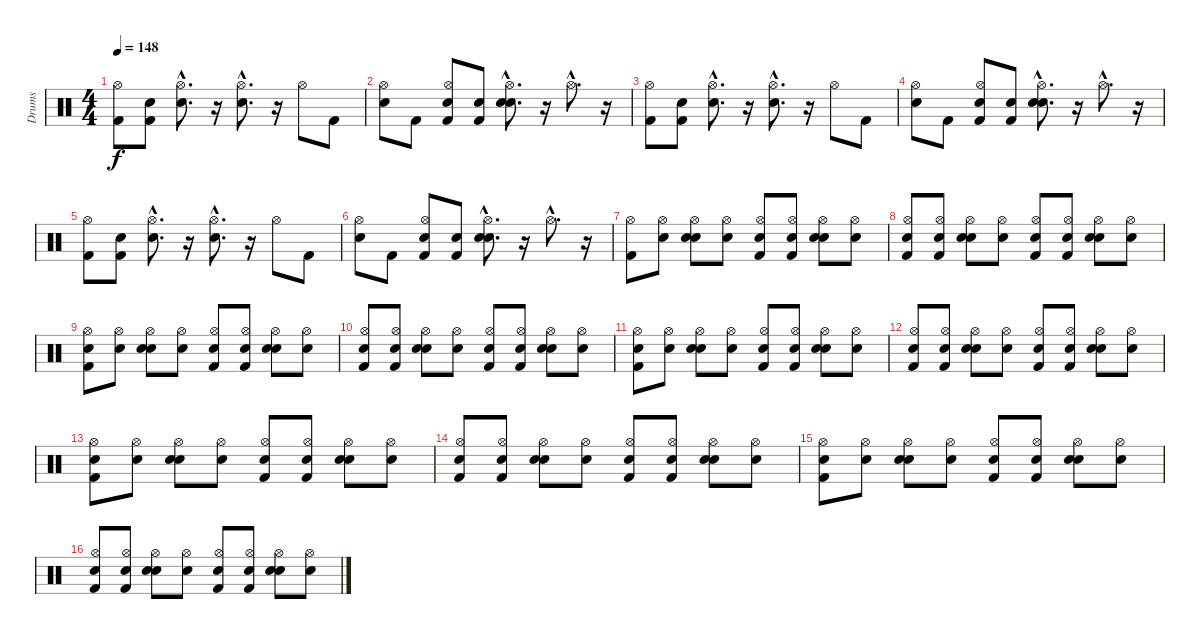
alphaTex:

\track ("Drums" "Drums") {instrument percussion}
\staff {score}
\articulation defaults
\ts (4 4)
\tempo 148
\clef neutral
\ks c
("Kick (hit) 2" "Hi-Hat (open)").8{dy f} ("Snare (hit)" "Kick (hit) 2").8 ("Snare (hit)"{hac} "Hi-Hat (open)"{hac}).8{d} r.16 ("Snare (hit) 2"{hac} "Hi-Hat (open)"{hac}).8{d} r.16 "Hi-Hat (open)".8 "Kick (hit) 2".8 |
("Snare (hit)" "Hi-Hat (open)").8 "Kick (hit) 2".8 ("Snare (hit)" "Kick (hit) 2" "Hi-Hat (open)").8 ("Snare (hit)" "Kick (hit) 2").8 ("Snare (hit)"{hac} "Snare (hit) 2"{hac} "Hi-Hat (open)"{hac}).8{d} r.16 "Hi-Hat (open)"{hac}.8{d} r.16 |
("Kick (hit) 2" "Hi-Hat (open)").8 ("Snare (hit)" "Kick (hit) 2").8 ("Snare (hit)"{hac} "Hi-Hat (open)"{hac}).8{d} r.16 ("Snare (hit) 2"{hac} "Hi-Hat (open)"{hac}).8{d} r.16 "Hi-Hat (open)".8 "Kick (hit) 2".8 |
("Snare (hit)" "Hi-Hat (open)").8 "Kick (hit) 2".8 ("Snare (hit)" "Kick (hit) 2" "Hi-Hat (open)").8 ("Snare (hit)" "Kick (hit) 2").8 ("Snare (hit)"{hac} "Snare (hit) 2"{hac} "Hi-Hat (open)"{hac}).8{d} r.16 "Hi-Hat (open)"{hac}.8{d} r.16 |
("Kick (hit) 2" "Hi-Hat (open)").8 ("Snare (hit)" "Kick (hit) 2").8 ("Snare (hit)"{hac} "Hi-Hat (open)"{hac}).8{d} r.16 ("Snare (hit) 2"{hac} "Hi-Hat (open)"{hac}).8{d} r.16 "Hi-Hat (open)".8 "Kick (hit) 2".8 |
("Snare (hit)" "Hi-Hat (open)").8 "Kick (hit) 2".8 ("Snare (hit)" "Kick (hit) 2" "Hi-Hat (open)").8 ("Snare (hit)" "Kick (hit) 2").8 ("Snare (hit)"{hac} "Snare (hit) 2"{hac} "Hi-Hat (open)"{hac}).8{d} r.16 "Hi-Hat (open)"{hac}.8{d} r.16 |
("Kick (hit) 2" "Hi-Hat (open)").8 ("Snare (hit)" "Hi-Hat (open)").8 ("Snare (hit)" "Snare (hit) 2" "Hi-Hat (open)").8 ("Snare (hit)" "Hi-Hat (open)").8 ("Snare (hit)" "Kick (hit) 2" "Hi-Hat (open)").8 ("Snare (hit)" "Kick (hit) 2" "Hi-Hat (open)").8 ("Snare (hit)" "Snare (hit) 2" "Hi-Hat (open)").8 ("Snare (hit)" "Hi-Hat (open)").8 |
("Snare (hit)" "Kick (hit) 2" "Hi-Hat (open)").8 ("Snare (hit)" "Kick (hit) 2" "Hi-Hat (open)").8 ("Snare (hit)" "Snare (hit) 2" "Hi-Hat (open)").8 ("Snare (hit)" "Hi-Hat (open)").8 ("Snare (hit)" "Kick (hit) 2" "Hi-Hat (open)").8 ("Snare (hit)" "Kick (hit) 2" "Hi-Hat (open)").8 ("Snare (hit)" "Snare (hit) 2" "Hi-Hat (open)").8 ("Snare (hit)" "Hi-Hat (open)").8 |
("Snare (hit)" "Kick (hit) 2" "Hi-Hat (open)").8 ("Snare (hit)" "Hi-Hat (open)").8 ("Snare (hit)" "Snare (hit) 2" "Hi-Hat (open)").8 ("Snare (hit)" "Hi-Hat (open)").8 ("Snare (hit)" "Kick (hit) 2" "Hi-Hat (open)").8 ("Snare (hit)" "Kick (hit) 2" "Hi-Hat (open)").8 ("Snare (hit)" "Snare (hit) 2" "Hi-Hat (open)").8 ("Snare (hit)" "Hi-Hat (open)").8 |
("Snare (hit)" "Kick (hit) 2" "Hi-Hat (open)").8 ("Snare (hit)" "Kick (hit) 2" "Hi-Hat (open)").8 ("Snare (hit)" "Snare (hit) 2" "Hi-Hat (open)").8 ("Snare (hit)" "Hi-Hat (open)").8 ("Snare (hit)" "Kick (hit) 2" "Hi-Hat (open)").8 ("Snare (hit)" "Kick (hit) 2" "Hi-Hat (open)").8 ("Snare (hit)" "Snare (hit) 2" "Hi-Hat (open)").8 ("Snare (hit)" "Hi-Hat (open)").8 |
("Snare (hit)" "Kick (hit) 2" "Hi-Hat (open)").8 ("Snare (hit)" "Hi-Hat (open)").8 ("Snare (hit)" "Snare (hit) 2" "Hi-Hat (open)").8 ("Snare (hit)" "Hi-Hat (open)").8 ("Snare (hit)" "Kick (hit) 2" "Hi-Hat (open)").8 ("Snare (hit)" "Kick (hit) 2" "Hi-Hat (open)").8 ("Snare (hit)" "Snare (hit) 2" "Hi-Hat (open)").8 ("Snare (hit)" "Hi-Hat (open)").8 |
("Snare (hit)" "Kick (hit) 2" "Hi-Hat (open)").8 ("Snare (hit)" "Kick (hit) 2" "Hi-Hat (open)").8 ("Snare (hit)" "Snare (hit) 2" "Hi-Hat (open)").8 ("Snare (hit)" "Hi-Hat (open)").8 ("Snare (hit)" "Kick (hit) 2" "Hi-Hat (open)").8 ("Snare (hit)" "Kick (hit) 2" "Hi-Hat (open)").8 ("Snare (hit)" "Snare (hit) 2" "Hi-Hat (open)").8 ("Snare (hit)" "Hi-Hat (open)").8 |
("Snare (hit)" "Kick (hit) 2" "Hi-Hat (open)").8 ("Snare (hit)" "Hi-Hat (open)").8 ("Snare (hit)" "Snare (hit) 2" "Hi-Hat (open)").8 ("Snare (hit)" "Hi-Hat (open)").8 ("Snare (hit)" "Kick (hit) 2" "Hi-Hat (open)").8 ("Snare (hit)" "Kick (hit) 2" "Hi-Hat (open)").8 ("Snare (hit)" "Snare (hit) 2" "Hi-Hat (open)").8 ("Snare (hit)" "Hi-Hat (open)").8 |
("Snare (hit)" "Kick (hit) 2" "Hi-Hat (open)").8 ("Snare (hit)" "Kick (hit) 2" "Hi-Hat (open)").8 ("Snare (hit)" "Snare (hit) 2" "Hi-Hat (open)").8 ("Snare (hit)" "Hi-Hat (open)").8 ("Snare (hit)" "Kick (hit) 2" "Hi-Hat (open)").8 ("Snare (hit)" "Kick (hit) 2" "Hi-Hat (open)").8 ("Snare (hit)" "Snare (hit) 2" "Hi-Hat (open)").8 ("Snare (hit)" "Hi-Hat (open)").8 |
("Snare (hit)" "Kick (hit) 2" "Hi-Hat (open)").8 ("Snare (hit)" "Hi-Hat (open)").8 ("Snare (hit)" "Snare (hit) 2" "Hi-Hat (open)").8 ("Snare (hit)" "Hi-Hat (open)").8 ("Snare (hit)" "Kick (hit) 2" "Hi-Hat (open)").8 ("Snare (hit)" "Kick (hit) 2" "Hi-Hat (open)").8 ("Snare (hit)" "Snare (hit) 2" "Hi-Hat (open)").8 ("Snare (hit)" "Hi-Hat (open)").8 |
("Snare (hit)" "Kick (hit) 2" "Hi-Hat (open)").8 ("Snare (hit)" "Kick (hit) 2" "Hi-Hat (open)").8 ("Snare (hit)" "Snare (hit) 2" "Hi-Hat (open)").8 ("Snare (hit)" "Hi-Hat (open)").8 ("Snare (hit)" "Kick (hit) 2" "Hi-Hat (open)").8 ("Snare (hit)" "Kick (hit) 2" "Hi-Hat (open)").8 ("Snare (hit)" "Snare (hit) 2" "Hi-Hat (open)").8 ("Snare (hit)" "Hi-Hat (open)").8
